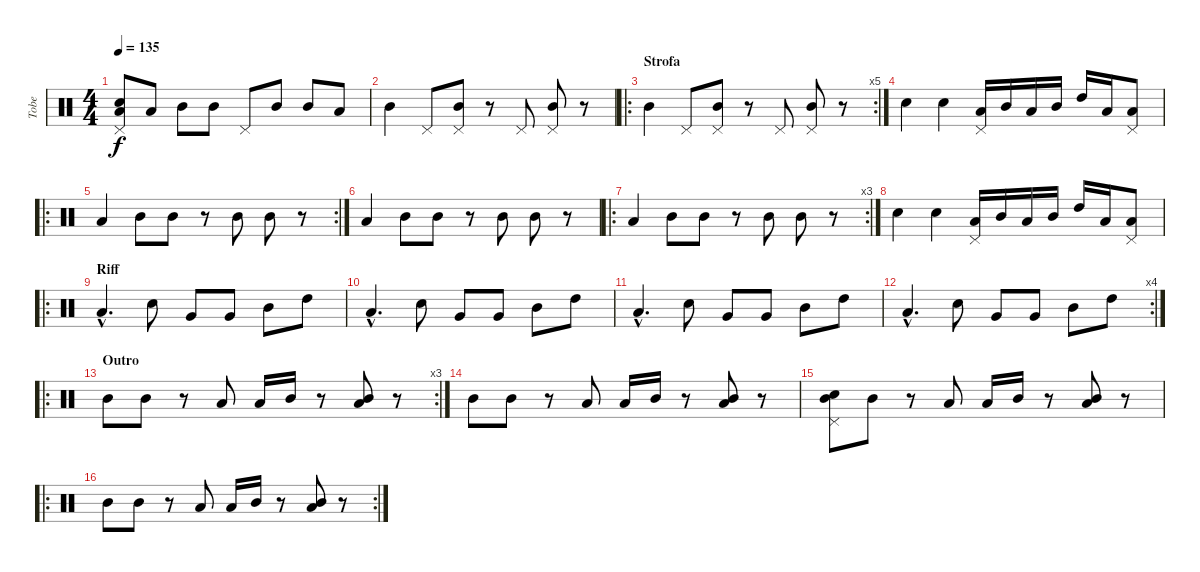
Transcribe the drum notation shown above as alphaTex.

\track ("Tobe" "Tobe") {instrument percussion}
\staff {score}
\articulation defaults
\ts (4 4)
\tempo 135
\clef neutral
\ks c
("Low Tom (hit)" "Snare (hit) 2" "Pedal Hi-Hat (hit)").8{dy f} "Low Tom (hit)".8 "Mid Tom (hit)".8 "Mid Tom (hit)".8 "Pedal Hi-Hat (hit)".8 "Mid Tom (hit)".8 "Mid Tom (hit)".8 "Low Tom (hit)".8 |
"Mid Tom (hit)".4 "Pedal Hi-Hat (hit)".8 ("Mid Tom (hit)" "Pedal Hi-Hat (hit)").8 r.8 "Pedal Hi-Hat (hit)".8 ("Mid Tom (hit)" "Pedal Hi-Hat (hit)").8 r.8 |
\ro
\rc 5
\section ("" "Strofa")
"Mid Tom (hit)".4 "Pedal Hi-Hat (hit)".8 ("Mid Tom (hit)" "Pedal Hi-Hat (hit)").8 r.8 "Pedal Hi-Hat (hit)".8 ("Mid Tom (hit)" "Pedal Hi-Hat (hit)").8 r.8 |
"Snare (hit) 2".4 "Snare (hit) 2".4 ("Low Tom (hit)" "Pedal Hi-Hat (hit)").16 "Mid Tom (hit)".16 "Low Tom (hit)".16 "Mid Tom (hit)".16 "High Tom (hit)".16 "Low Floor Tom (hit)".16 ("Low Tom (hit)" "Pedal Hi-Hat (hit)").8 |
\ro
\rc 2 "Low Tom (hit)".4 "Mid Tom (hit)".8 "Mid Tom (hit)".8
r.8 "Mid Tom (hit)".8 "Mid Tom (hit)".8 r.8 |
"Low Tom (hit)".4 "Mid Tom (hit)".8 "Mid Tom (hit)".8 r.8 "Mid Tom (hit)".8 "Mid Tom (hit)".8 r.8 |
\ro
\rc 3 "Low Tom (hit)".4 "Mid Tom (hit)".8 "Mid Tom (hit)".8
r.8 "Mid Tom (hit)".8 "Mid Tom (hit)".8 r.8 |
"Snare (hit) 2".4 "Snare (hit) 2".4 ("Low Tom (hit)" "Pedal Hi-Hat (hit)").16 "Mid Tom (hit)".16 "Low Tom (hit)".16 "Mid Tom (hit)".16 "High Tom (hit)".16 "Low Floor Tom (hit)".16 ("Low Tom (hit)" "Pedal Hi-Hat (hit)").8 |
\ro
\section ("" "Riff")
"Low Tom (hit)"{hac}.4{d} "Snare (hit) 2".8 "Very Low Tom (hit)".8 "Very Low Tom (hit)".8 "Mid Tom (hit)".8 "High Tom (hit)".8 |
"Low Tom (hit)"{hac}.4{d} "Snare (hit) 2".8 "Very Low Tom (hit)".8 "Very Low Tom (hit)".8 "Mid Tom (hit)".8 "High Tom (hit)".8 |
"Low Tom (hit)"{hac}.4{d} "Snare (hit) 2".8 "Very Low Tom (hit)".8 "Very Low Tom (hit)".8 "Mid Tom (hit)".8 "High Tom (hit)".8 |
\rc 4 "Low Tom (hit)"{hac}.4{d} "Snare (hit) 2".8 "Very Low Tom (hit)".8 "Very Low Tom (hit)".8 "Mid Tom (hit)".8 "High Tom (hit)".8
|
\ro
\rc 3
\section ("" "Outro")
"Mid Tom (hit)".8 "Mid Tom (hit)".8 r.8 "Low Tom (hit)".8 "Low Tom (hit)".16 "Mid Tom (hit)".16 r.8 ("Mid Tom (hit)" "Low Tom (hit)").8 r.8 |
"Mid Tom (hit)".8 "Mid Tom (hit)".8 r.8 "Low Tom (hit)".8 "Low Tom (hit)".16 "Mid Tom (hit)".16 r.8 ("Mid Tom (hit)" "Low Tom (hit)").8 r.8 |
("Mid Tom (hit)" "Pedal Hi-Hat (hit)" "Snare (hit) 2").8 "Mid Tom (hit)".8 r.8 "Low Tom (hit)".8 "Low Tom (hit)".16 "Mid Tom (hit)".16 r.8 ("Mid Tom (hit)" "Low Tom (hit)").8 r.8 |
\ro
\rc 2 "Mid Tom (hit)".8 "Mid Tom (hit)".8
r.8 "Low Tom (hit)".8 "Low Tom (hit)".16 "Mid Tom (hit)".16 r.8 ("Mid Tom (hit)" "Low Tom (hit)").8 r.8
